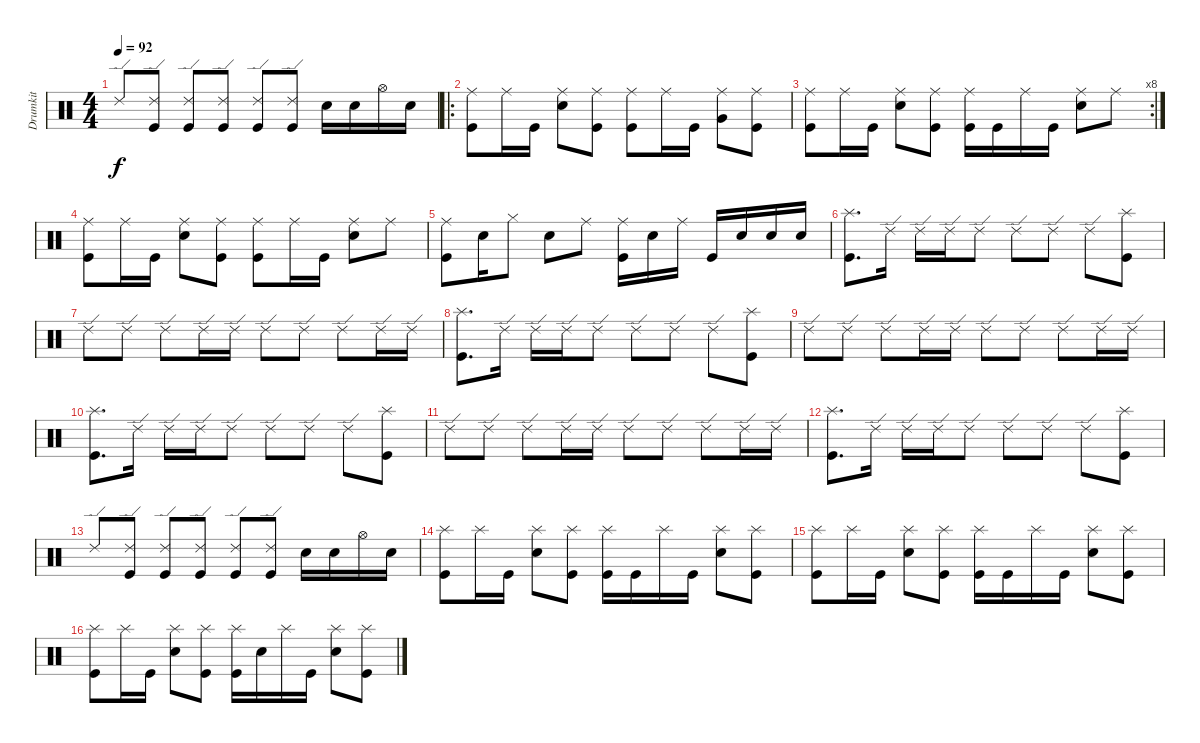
\track ("Drumkit" "Drumkit") {instrument percussion}
\staff {score}
\articulation defaults
\ts (4 4)
\tempo 92
\clef neutral
\ks c "Ride (edge) 2".8{dy f}
("Ride (edge) 2" "Kick (hit)").8 ("Ride (edge) 2" "Kick (hit)").8 ("Ride (edge) 2" "Kick (hit)").8 ("Ride (edge) 2" "Kick (hit)").8 ("Ride (edge) 2" "Kick (hit)").8 "Snare (hit) 2".16 "Snare (hit) 2".16 "Hi-Hat (open)".16 "Snare (hit) 2".16 |
\ro
("Ride (middle)" "Kick (hit)").8 "Ride (middle)".16 "Kick (hit)".16 ("Ride (middle)" "Snare (hit) 2").8 ("Ride (middle)" "Kick (hit)").8 ("Ride (middle)" "Kick (hit)").8 "Ride (middle)".16 "Kick (hit)".16 ("Ride (middle)" "Very Low Tom (hit)").8 ("Ride (middle)" "Kick (hit)").8 |
\rc 8
("Ride (middle)" "Kick (hit)").8 "Ride (middle)".16 "Kick (hit)".16 ("Ride (middle)" "Snare (hit) 2").8 ("Ride (middle)" "Kick (hit)").8 ("Ride (middle)" "Kick (hit)").16 "Kick (hit)".16 "Ride (middle)".16 "Kick (hit)".16 ("Ride (middle)" "Snare (hit) 2").8 "Ride (middle)".8 |
("Ride (middle)" "Kick (hit)").8 "Ride (middle)".16 "Kick (hit)".16 ("Ride (middle)" "Snare (hit) 2").8 ("Ride (middle)" "Kick (hit)").8 ("Kick (hit)" "Ride (middle)").8 "Ride (middle)".16 "Kick (hit)".16 ("Ride (middle)" "Snare (hit) 2").8 "Ride (middle)".8 |
("Ride (middle)" "Kick (hit)").8 "Snare (hit) 2".16 "Hi-Hat (closed)".8 "Snare (hit) 2".8 "Ride (middle)".8 ("Ride (middle)" "Kick (hit)").16 "Snare (hit) 2".16 "Ride (middle)".16 "Kick (hit)".16 "Snare (hit) 2".16 "Snare (hit) 2".16 "Snare (hit) 2".16 |
("Kick (hit)" "Splash (hit)").8{d} "Ride (edge) 2".16 "Ride (edge) 2".16 "Ride (edge) 2".16 "Ride (edge) 2".8 "Ride (edge) 2".8 "Ride (edge) 2".8 "Ride (edge) 2".8 ("Splash (hit)" "Kick (hit)").8 |
"Ride (edge) 2".8 "Ride (edge) 2".8 "Ride (edge) 2".8 "Ride (edge) 2".16 "Ride (edge) 2".16 "Ride (edge) 2".8 "Ride (edge) 2".8 "Ride (edge) 2".8 "Ride (edge) 2".16 "Ride (edge) 2".16 |
("Kick (hit)" "Splash (hit)").8{d} "Ride (edge) 2".16 "Ride (edge) 2".16 "Ride (edge) 2".16 "Ride (edge) 2".8 "Ride (edge) 2".8 "Ride (edge) 2".8 "Ride (edge) 2".8 ("Splash (hit)" "Kick (hit)").8 |
"Ride (edge) 2".8 "Ride (edge) 2".8 "Ride (edge) 2".8 "Ride (edge) 2".16 "Ride (edge) 2".16 "Ride (edge) 2".8 "Ride (edge) 2".8 "Ride (edge) 2".8 "Ride (edge) 2".16 "Ride (edge) 2".16 |
("Kick (hit)" "Splash (hit)").8{d} "Ride (edge) 2".16 "Ride (edge) 2".16 "Ride (edge) 2".16 "Ride (edge) 2".8 "Ride (edge) 2".8 "Ride (edge) 2".8 "Ride (edge) 2".8 ("Splash (hit)" "Kick (hit)").8 |
"Ride (edge) 2".8 "Ride (edge) 2".8 "Ride (edge) 2".8 "Ride (edge) 2".16 "Ride (edge) 2".16 "Ride (edge) 2".8 "Ride (edge) 2".8 "Ride (edge) 2".8 "Ride (edge) 2".16 "Ride (edge) 2".16 |
("Kick (hit)" "Splash (hit)").8{d} "Ride (edge) 2".16 "Ride (edge) 2".16 "Ride (edge) 2".16 "Ride (edge) 2".8 "Ride (edge) 2".8 "Ride (edge) 2".8 "Ride (edge) 2".8 ("Splash (hit)" "Kick (hit)").8 |
"Ride (edge) 2".8 ("Ride (edge) 2" "Kick (hit)").8 ("Ride (edge) 2" "Kick (hit)").8 ("Ride (edge) 2" "Kick (hit)").8 ("Ride (edge) 2" "Kick (hit)").8 ("Ride (edge) 2" "Kick (hit)").8 "Snare (hit) 2".16 "Snare (hit) 2".16 "Hi-Hat (open)".16 "Snare (hit) 2".16 |
("Splash (hit)" "Kick (hit)").8 "Splash (hit)".16 "Kick (hit)".16 ("Snare (hit) 2" "Splash (hit)").8 ("Kick (hit)" "Splash (hit)").8 ("Kick (hit)" "Splash (hit)").16 "Kick (hit)".16 "Splash (hit)".16 "Kick (hit)".16 ("Snare (hit) 2" "Splash (hit)").8 ("Kick (hit)" "Splash (hit)").8 |
("Splash (hit)" "Kick (hit)").8 "Splash (hit)".16 "Kick (hit)".16 ("Snare (hit) 2" "Splash (hit)").8 ("Kick (hit)" "Splash (hit)").8 ("Kick (hit)" "Splash (hit)").16 "Kick (hit)".16 "Splash (hit)".16 "Kick (hit)".16 ("Snare (hit) 2" "Splash (hit)").8 ("Kick (hit)" "Splash (hit)").8 |
("Splash (hit)" "Kick (hit)").8 "Splash (hit)".16 "Kick (hit)".16 ("Snare (hit) 2" "Splash (hit)").8 ("Kick (hit)" "Splash (hit)").8 ("Kick (hit)" "Splash (hit)").16 "Snare (hit) 2".16 "Splash (hit)".16 "Kick (hit)".16 ("Snare (hit) 2" "Splash (hit)").8 ("Kick (hit)" "Splash (hit)").8
